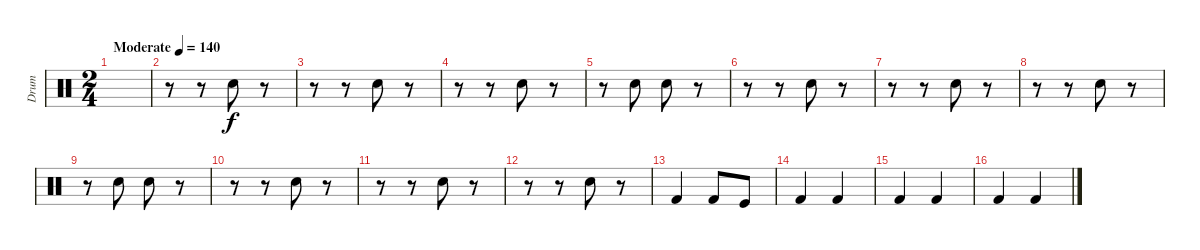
\track ("Drum" "Drum") {instrument percussion}
\staff {score}
\articulation defaults
\ts (2 4)
\tempo (140 "Moderate")
\clef neutral
\ks c
|
r.8 r.8 "Hand Clap (hit)".8 r.8 |
r.8 r.8 "Hand Clap (hit)".8 r.8 |
r.8 r.8 "Hand Clap (hit)".8 r.8 |
r.8 "Hand Clap (hit)".8 "Hand Clap (hit)".8 r.8 |
r.8 r.8 "Hand Clap (hit)".8 r.8 |
r.8 r.8 "Hand Clap (hit)".8 r.8 |
r.8 r.8 "Hand Clap (hit)".8 r.8 |
r.8 "Hand Clap (hit)".8 "Hand Clap (hit)".8 r.8 |
r.8 r.8 "Hand Clap (hit)".8 r.8 |
r.8 r.8 "Hand Clap (hit)".8 r.8 |
r.8 r.8 "Hand Clap (hit)".8 r.8 |
"Kick (hit) 2".4 "Kick (hit) 2".8 "Kick (hit)".8 |
"Kick (hit) 2".4 "Kick (hit) 2".4 |
"Kick (hit) 2".4 "Kick (hit) 2".4 |
"Kick (hit) 2".4 "Kick (hit) 2".4
